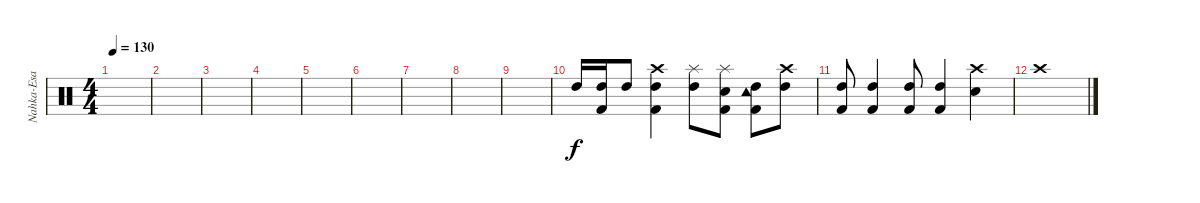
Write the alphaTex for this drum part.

\track ("Nahka-Esa" "Nahka-Esa") {instrument percussion}
\staff {score}
\articulation defaults
\ts (4 4)
\tempo 130
\clef neutral
\ks c
|
|
|
|
|
|
|
|
|
"High Tom (hit)".16 ("High Tom (hit)" "Kick (hit) 2").16 "High Tom (hit)".8 ("Crash high (hit)" "High Tom (hit)" "Kick (hit) 2").4 ("Splash (hit)" "High Tom (hit)").8 ("Splash (hit)" "Snare (hit)" "Kick (hit) 2").8 ("Tambourine (hit)" "High Tom (hit)" "Kick (hit) 2").8 ("Crash high (hit)" "High Tom (hit)").8 |
("High Tom (hit)" "Kick (hit) 2").8 ("High Tom (hit)" "Kick (hit) 2").4 ("High Tom (hit)" "Kick (hit) 2").8 ("High Tom (hit)" "Kick (hit) 2").4 ("Snare (hit)" "Crash high (hit)").4 |
"Crash high (hit)".1
